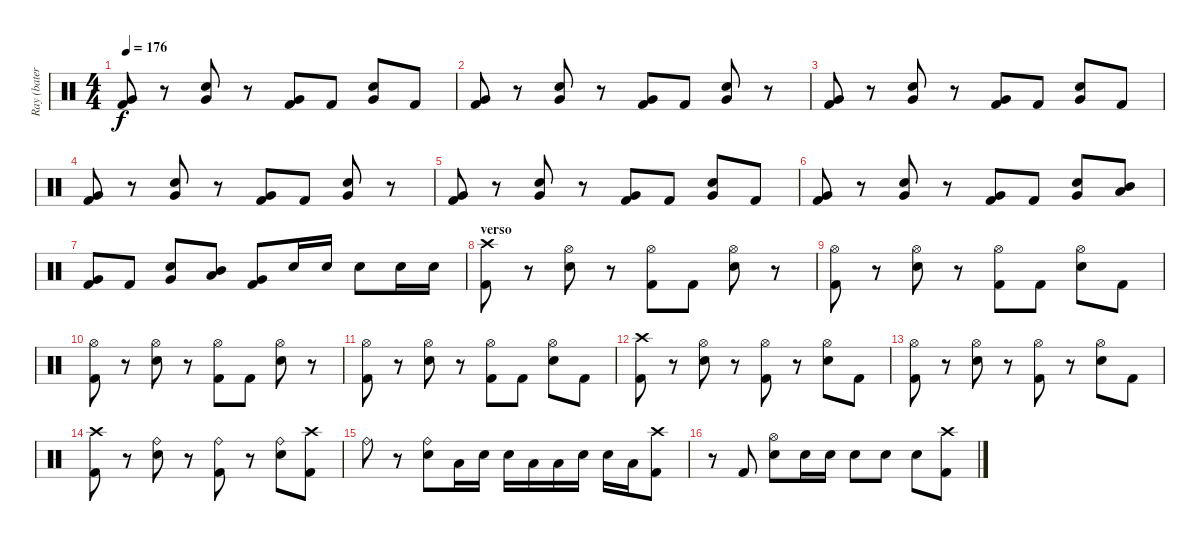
\track ("Ray (batería)" "Ray (bater") {instrument percussion}
\staff {score}
\articulation defaults
\ts (4 4)
\tempo 176
\clef neutral
\ks c
("Very Low Tom (hit)" "Kick (hit) 2").8{dy f} r.8 ("Snare (hit) 2" "Very Low Tom (hit)").8 r.8 ("Very Low Tom (hit)" "Kick (hit) 2").8 "Kick (hit) 2".8 ("Snare (hit) 2" "Very Low Tom (hit)").8 "Kick (hit) 2".8 |
("Very Low Tom (hit)" "Kick (hit) 2").8 r.8 ("Snare (hit) 2" "Very Low Tom (hit)").8 r.8 ("Very Low Tom (hit)" "Kick (hit) 2").8 "Kick (hit) 2".8 ("Snare (hit) 2" "Very Low Tom (hit)").8 r.8 |
("Very Low Tom (hit)" "Kick (hit) 2").8 r.8 ("Snare (hit) 2" "Very Low Tom (hit)").8 r.8 ("Very Low Tom (hit)" "Kick (hit) 2").8 "Kick (hit) 2".8 ("Snare (hit) 2" "Very Low Tom (hit)").8 "Kick (hit) 2".8 |
("Very Low Tom (hit)" "Kick (hit) 2").8 r.8 ("Snare (hit) 2" "Very Low Tom (hit)").8 r.8 ("Very Low Tom (hit)" "Kick (hit) 2").8 "Kick (hit) 2".8 ("Snare (hit) 2" "Very Low Tom (hit)").8 r.8 |
("Very Low Tom (hit)" "Kick (hit) 2").8 r.8 ("Snare (hit) 2" "Very Low Tom (hit)").8 r.8 ("Very Low Tom (hit)" "Kick (hit) 2").8 "Kick (hit) 2".8 ("Snare (hit) 2" "Very Low Tom (hit)").8 "Kick (hit) 2".8 |
("Very Low Tom (hit)" "Kick (hit) 2").8 r.8 ("Snare (hit) 2" "Very Low Tom (hit)").8 r.8 ("Very Low Tom (hit)" "Kick (hit) 2").8 "Kick (hit) 2".8 ("Snare (hit) 2" "Very Low Tom (hit)").8 ("Mid Tom (hit)" "Low Tom (hit)").8 |
("Very Low Tom (hit)" "Kick (hit) 2").8 "Kick (hit) 2".8 ("Snare (hit) 2" "Very Low Tom (hit)").8 ("Mid Tom (hit)" "Low Tom (hit)").8 ("Very Low Tom (hit)" "Kick (hit) 2").8 "Snare (hit) 2".16 "Snare (hit) 2".16 "Snare (hit) 2".8 "Snare (hit) 2".16 "Snare (hit) 2".16 |
\section ("" "verso")
("Crash high (hit)" "Kick (hit) 2").8 r.8 ("Hi-Hat (open)" "Snare (hit) 2").8 r.8 ("Hi-Hat (open)" "Kick (hit) 2").8 "Kick (hit) 2".8 ("Hi-Hat (open)" "Snare (hit) 2").8 r.8 |
("Hi-Hat (open)" "Kick (hit) 2").8 r.8 ("Hi-Hat (open)" "Snare (hit) 2").8 r.8 ("Hi-Hat (open)" "Kick (hit) 2").8 "Kick (hit) 2".8 ("Hi-Hat (open)" "Snare (hit) 2").8 "Kick (hit) 2".8 |
("Hi-Hat (open)" "Kick (hit) 2").8 r.8 ("Hi-Hat (open)" "Snare (hit) 2").8 r.8 ("Hi-Hat (open)" "Kick (hit) 2").8 "Kick (hit) 2".8 ("Hi-Hat (open)" "Snare (hit) 2").8 r.8 |
("Hi-Hat (open)" "Kick (hit) 2").8 r.8 ("Hi-Hat (open)" "Snare (hit) 2").8 r.8 ("Hi-Hat (open)" "Kick (hit) 2").8 "Kick (hit) 2".8 ("Hi-Hat (open)" "Snare (hit) 2").8 "Kick (hit) 2".8 |
("Crash high (hit)" "Kick (hit) 2").8 r.8 ("Hi-Hat (open)" "Snare (hit) 2").8 r.8 ("Hi-Hat (open)" "Kick (hit) 2").8 r.8 ("Hi-Hat (open)" "Snare (hit) 2").8 "Kick (hit) 2".8 |
("Hi-Hat (open)" "Kick (hit) 2").8 r.8 ("Hi-Hat (open)" "Snare (hit) 2").8 r.8 ("Hi-Hat (open)" "Kick (hit) 2").8 r.8 ("Hi-Hat (open)" "Snare (hit) 2").8 "Kick (hit) 2".8 |
("Crash high (hit)" "Kick (hit) 2").8 r.8 ("Ride (bell)" "Snare (hit) 2").8 r.8 ("Ride (bell)" "Kick (hit) 2").8 r.8 ("Ride (bell)" "Snare (hit) 2").8 ("Crash high (hit)" "Kick (hit) 2").8 |
"Ride (bell)".8 r.8 ("Ride (bell)" "Snare (hit) 2").8 "Low Tom (hit)".16 "Snare (hit) 2".16 "Snare (hit) 2".16 "Low Tom (hit)".16 "Low Tom (hit)".16 "Snare (hit) 2".16 "Snare (hit) 2".16 "Low Tom (hit)".16 ("Crash high (hit)" "Kick (hit) 2").8 |
r.8 "Kick (hit) 2".8 ("Hi-Hat (open)" "Snare (hit) 2").8 "Snare (hit) 2".16 "Snare (hit) 2".16 "Snare (hit) 2".8 "Snare (hit) 2".8 "Snare (hit) 2".8 ("Crash high (hit)" "Kick (hit) 2").8
